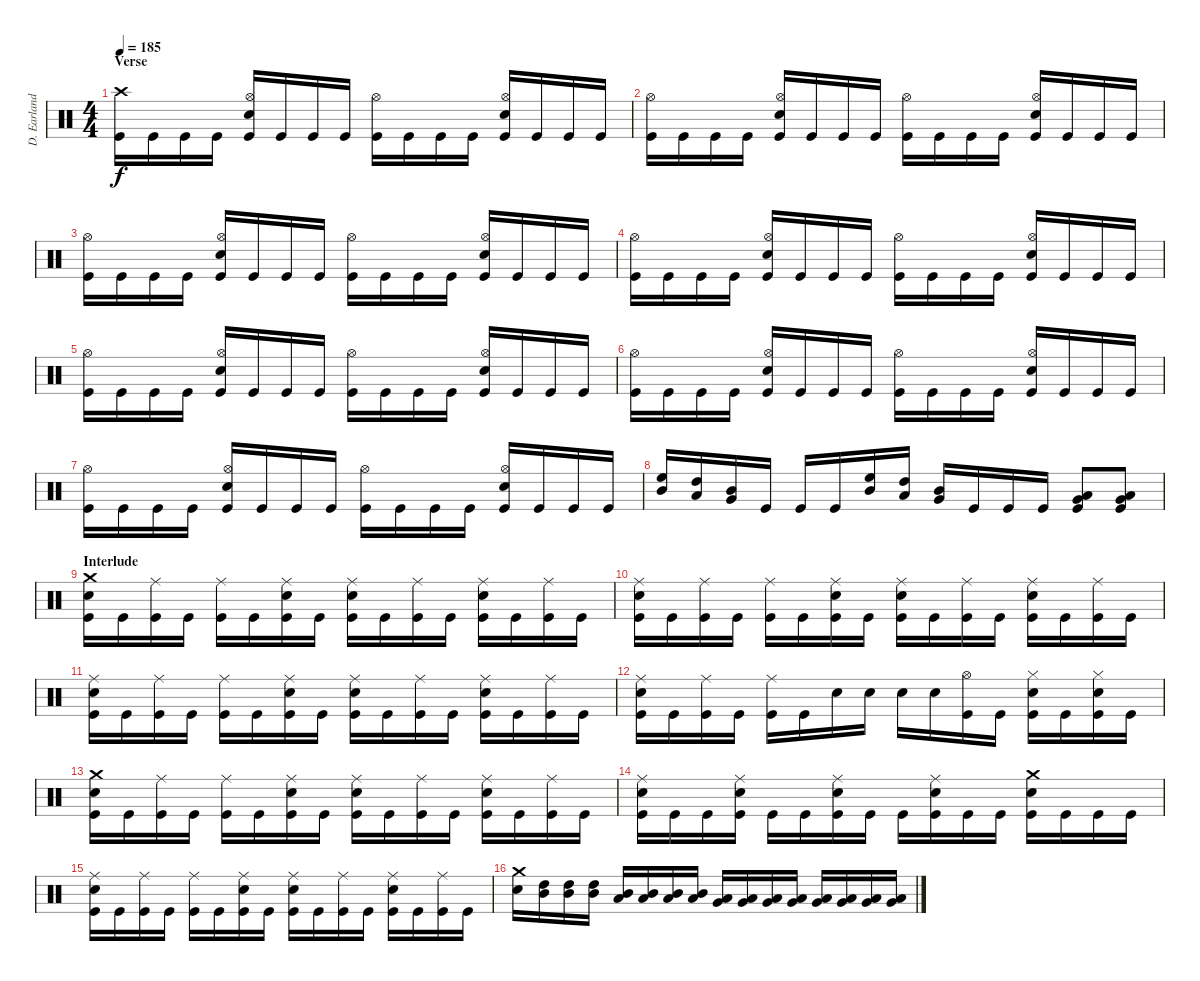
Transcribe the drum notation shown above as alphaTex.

\track ("D. Earlanddson" "D. Earland") {instrument percussion}
\staff {score}
\articulation defaults
\ts (4 4)
\section ("" "Verse")
\tempo 185
\clef neutral
\ks c
("Crash high (hit)" "Kick (hit)").16{dy f} "Kick (hit)".16 "Kick (hit)".16 "Kick (hit)".16 ("Hi-Hat (open)" "Electric Snare (hit)" "Kick (hit)").16 "Kick (hit)".16 "Kick (hit)".16 "Kick (hit)".16 ("Hi-Hat (open)" "Kick (hit)").16 "Kick (hit)".16 "Kick (hit)".16 "Kick (hit)".16 ("Hi-Hat (open)" "Electric Snare (hit)" "Kick (hit)").16 "Kick (hit)".16 "Kick (hit)".16 "Kick (hit)".16 |
("Hi-Hat (open)" "Kick (hit)").16 "Kick (hit)".16 "Kick (hit)".16 "Kick (hit)".16 ("Hi-Hat (open)" "Electric Snare (hit)" "Kick (hit)").16 "Kick (hit)".16 "Kick (hit)".16 "Kick (hit)".16 ("Hi-Hat (open)" "Kick (hit)").16 "Kick (hit)".16 "Kick (hit)".16 "Kick (hit)".16 ("Hi-Hat (open)" "Electric Snare (hit)" "Kick (hit)").16 "Kick (hit)".16 "Kick (hit)".16 "Kick (hit)".16 |
("Hi-Hat (open)" "Kick (hit)").16 "Kick (hit)".16 "Kick (hit)".16 "Kick (hit)".16 ("Hi-Hat (open)" "Electric Snare (hit)" "Kick (hit)").16 "Kick (hit)".16 "Kick (hit)".16 "Kick (hit)".16 ("Hi-Hat (open)" "Kick (hit)").16 "Kick (hit)".16 "Kick (hit)".16 "Kick (hit)".16 ("Hi-Hat (open)" "Electric Snare (hit)" "Kick (hit)").16 "Kick (hit)".16 "Kick (hit)".16 "Kick (hit)".16 |
("Hi-Hat (open)" "Kick (hit)").16 "Kick (hit)".16 "Kick (hit)".16 "Kick (hit)".16 ("Hi-Hat (open)" "Electric Snare (hit)" "Kick (hit)").16 "Kick (hit)".16 "Kick (hit)".16 "Kick (hit)".16 ("Hi-Hat (open)" "Kick (hit)").16 "Kick (hit)".16 "Kick (hit)".16 "Kick (hit)".16 ("Hi-Hat (open)" "Electric Snare (hit)" "Kick (hit)").16 "Kick (hit)".16 "Kick (hit)".16 "Kick (hit)".16 |
("Hi-Hat (open)" "Kick (hit)").16 "Kick (hit)".16 "Kick (hit)".16 "Kick (hit)".16 ("Hi-Hat (open)" "Electric Snare (hit)" "Kick (hit)").16 "Kick (hit)".16 "Kick (hit)".16 "Kick (hit)".16 ("Hi-Hat (open)" "Kick (hit)").16 "Kick (hit)".16 "Kick (hit)".16 "Kick (hit)".16 ("Hi-Hat (open)" "Electric Snare (hit)" "Kick (hit)").16 "Kick (hit)".16 "Kick (hit)".16 "Kick (hit)".16 |
("Hi-Hat (open)" "Kick (hit)").16 "Kick (hit)".16 "Kick (hit)".16 "Kick (hit)".16 ("Hi-Hat (open)" "Electric Snare (hit)" "Kick (hit)").16 "Kick (hit)".16 "Kick (hit)".16 "Kick (hit)".16 ("Hi-Hat (open)" "Kick (hit)").16 "Kick (hit)".16 "Kick (hit)".16 "Kick (hit)".16 ("Hi-Hat (open)" "Electric Snare (hit)" "Kick (hit)").16 "Kick (hit)".16 "Kick (hit)".16 "Kick (hit)".16 |
("Hi-Hat (open)" "Kick (hit)").16 "Kick (hit)".16 "Kick (hit)".16 "Kick (hit)".16 ("Hi-Hat (open)" "Electric Snare (hit)" "Kick (hit)").16 "Kick (hit)".16 "Kick (hit)".16 "Kick (hit)".16 ("Hi-Hat (open)" "Kick (hit)").16 "Kick (hit)".16 "Kick (hit)".16 "Kick (hit)".16 ("Hi-Hat (open)" "Electric Snare (hit)" "Kick (hit)").16 "Kick (hit)".16 "Kick (hit)".16 "Kick (hit)".16 |
("High Floor Tom (hit)" "Mid Tom (hit)").16 ("High Tom (hit)" "Low Tom (hit)").16 ("Mid Tom (hit)" "Very Low Tom (hit)").16 "Kick (hit)".16 "Kick (hit)".16 "Kick (hit)".16 ("High Floor Tom (hit)" "Mid Tom (hit)").16 ("High Tom (hit)" "Low Tom (hit)").16 ("Mid Tom (hit)" "Very Low Tom (hit)").16 "Kick (hit)".16 "Kick (hit)".16 "Kick (hit)".16 ("Very Low Tom (hit)" "Low Floor Tom (hit)" "Kick (hit)").8 ("Very Low Tom (hit)" "Low Floor Tom (hit)" "Kick (hit)").8 |
\section ("" "Interlude")
("Crash medium (hit)" "Electric Snare (hit)" "Kick (hit)").16 "Kick (hit)".16 ("Ride (middle)" "Kick (hit)").16 "Kick (hit)".16 ("Ride (middle)" "Kick (hit)").16 "Kick (hit)".16 ("Ride (middle)" "Electric Snare (hit)" "Kick (hit)").16 "Kick (hit)".16 ("Ride (middle)" "Electric Snare (hit)" "Kick (hit)").16 "Kick (hit)".16 ("Ride (middle)" "Kick (hit)").16 "Kick (hit)".16 ("Ride (middle)" "Electric Snare (hit)" "Kick (hit)").16 "Kick (hit)".16 ("Ride (middle)" "Kick (hit)").16 "Kick (hit)".16 |
("Ride (middle)" "Electric Snare (hit)" "Kick (hit)").16 "Kick (hit)".16 ("Ride (middle)" "Kick (hit)").16 "Kick (hit)".16 ("Ride (middle)" "Kick (hit)").16 "Kick (hit)".16 ("Ride (middle)" "Electric Snare (hit)" "Kick (hit)").16 "Kick (hit)".16 ("Ride (middle)" "Electric Snare (hit)" "Kick (hit)").16 "Kick (hit)".16 ("Ride (middle)" "Kick (hit)").16 "Kick (hit)".16 ("Ride (middle)" "Electric Snare (hit)" "Kick (hit)").16 "Kick (hit)".16 ("Ride (middle)" "Kick (hit)").16 "Kick (hit)".16 |
("Ride (middle)" "Electric Snare (hit)" "Kick (hit)").16 "Kick (hit)".16 ("Ride (middle)" "Kick (hit)").16 "Kick (hit)".16 ("Ride (middle)" "Kick (hit)").16 "Kick (hit)".16 ("Ride (middle)" "Electric Snare (hit)" "Kick (hit)").16 "Kick (hit)".16 ("Ride (middle)" "Electric Snare (hit)" "Kick (hit)").16 "Kick (hit)".16 ("Ride (middle)" "Kick (hit)").16 "Kick (hit)".16 ("Ride (middle)" "Electric Snare (hit)" "Kick (hit)").16 "Kick (hit)".16 ("Ride (middle)" "Kick (hit)").16 "Kick (hit)".16 |
("Ride (middle)" "Electric Snare (hit)" "Kick (hit)").16 "Kick (hit)".16 ("Ride (middle)" "Kick (hit)").16 "Kick (hit)".16 ("Ride (middle)" "Kick (hit)").16 "Kick (hit)".16 "Electric Snare (hit)".16 "Electric Snare (hit)".16 "Electric Snare (hit)".16 "Electric Snare (hit)".16 ("Hi-Hat (open)" "Kick (hit)").16 "Kick (hit)".16 ("Hi-Hat (closed)" "Electric Snare (hit)" "Kick (hit)").16 "Kick (hit)".16 ("Hi-Hat (closed)" "Electric Snare (hit)" "Kick (hit)").16 "Kick (hit)".16 |
("Crash medium (hit)" "Electric Snare (hit)" "Kick (hit)").16 "Kick (hit)".16 ("Ride (middle)" "Kick (hit)").16 "Kick (hit)".16 ("Ride (middle)" "Kick (hit)").16 "Kick (hit)".16 ("Ride (middle)" "Electric Snare (hit)" "Kick (hit)").16 "Kick (hit)".16 ("Ride (middle)" "Electric Snare (hit)" "Kick (hit)").16 "Kick (hit)".16 ("Ride (middle)" "Kick (hit)").16 "Kick (hit)".16 ("Ride (middle)" "Electric Snare (hit)" "Kick (hit)").16 "Kick (hit)".16 ("Ride (middle)" "Kick (hit)").16 "Kick (hit)".16 |
("Ride (middle)" "Electric Snare (hit)" "Kick (hit)").16 "Kick (hit)".16 "Kick (hit)".16 ("Ride (middle)" "Electric Snare (hit)" "Kick (hit)").16 "Kick (hit)".16 "Kick (hit)".16 ("Ride (middle)" "Electric Snare (hit)" "Kick (hit)").16 "Kick (hit)".16 "Kick (hit)".16 ("Ride (middle)" "Electric Snare (hit)" "Kick (hit)").16 "Kick (hit)".16 "Kick (hit)".16 ("Crash medium (hit)" "Electric Snare (hit)" "Kick (hit)").16 "Kick (hit)".16 "Kick (hit)".16 "Kick (hit)".16 |
("Ride (middle)" "Electric Snare (hit)" "Kick (hit)").16 "Kick (hit)".16 ("Ride (middle)" "Kick (hit)").16 "Kick (hit)".16 ("Ride (middle)" "Kick (hit)").16 "Kick (hit)".16 ("Ride (middle)" "Electric Snare (hit)" "Kick (hit)").16 "Kick (hit)".16 ("Ride (middle)" "Electric Snare (hit)" "Kick (hit)").16 "Kick (hit)".16 ("Ride (middle)" "Kick (hit)").16 "Kick (hit)".16 ("Ride (middle)" "Electric Snare (hit)" "Kick (hit)").16 "Kick (hit)".16 ("Ride (middle)" "Kick (hit)").16 "Kick (hit)".16 |
("Crash medium (hit)" "Electric Snare (hit)").16 ("High Tom (hit)" "Mid Tom (hit)").16 ("High Tom (hit)" "Mid Tom (hit)").16 ("High Tom (hit)" "Mid Tom (hit)").16 ("Mid Tom (hit)" "Low Tom (hit)").16 ("Mid Tom (hit)" "Low Tom (hit)").16 ("Mid Tom (hit)" "Low Tom (hit)").16 ("Mid Tom (hit)" "Low Tom (hit)").16 ("Low Tom (hit)" "Very Low Tom (hit)").16 ("Low Tom (hit)" "Very Low Tom (hit)").16 ("Low Tom (hit)" "Very Low Tom (hit)").16 ("Low Tom (hit)" "Very Low Tom (hit)").16 ("Very Low Tom (hit)" "Low Floor Tom (hit)").16 ("Very Low Tom (hit)" "Low Floor Tom (hit)").16 ("Very Low Tom (hit)" "Low Floor Tom (hit)").16 ("Very Low Tom (hit)" "Low Floor Tom (hit)").16
